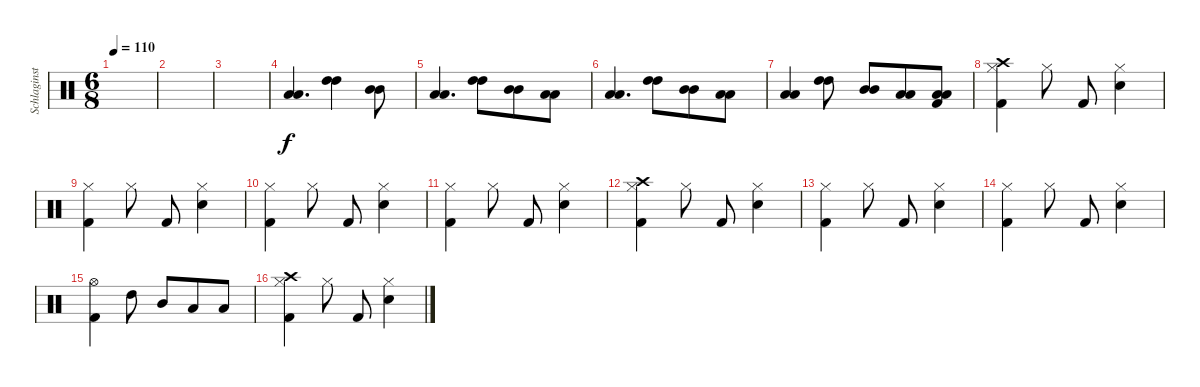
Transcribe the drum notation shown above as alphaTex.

\track ("Schlaginstrumente - Auswahl" "Schlaginst") {instrument percussion}
\staff {score}
\articulation defaults
\ts (6 8)
\tempo 110
\clef neutral
\ks c
|
|
|
("Low Tom (hit)" "Low Tom (hit)").4{d} ("High Tom (hit)" "High Tom (hit)").4 ("Mid Tom (hit)" "Mid Tom (hit)").8 |
("Low Tom (hit)" "Low Tom (hit)").4{d} ("High Tom (hit)" "High Tom (hit)").8 ("Mid Tom (hit)" "Mid Tom (hit)").8 ("Low Tom (hit)" "Low Tom (hit)").8 |
("Low Tom (hit)" "Low Tom (hit)").4{d} ("High Tom (hit)" "High Tom (hit)").8 ("Mid Tom (hit)" "Mid Tom (hit)").8 ("Low Tom (hit)" "Low Tom (hit)").8 |
("Low Tom (hit)" "Low Tom (hit)").4 ("High Tom (hit)" "High Tom (hit)").8 ("Mid Tom (hit)" "Mid Tom (hit)").8 ("Low Tom (hit)" "Low Tom (hit)").8 ("Low Tom (hit)" "Low Tom (hit)" "Kick (hit) 2").8 |
("Crash high (hit)" "Hi-Hat (closed)" "Kick (hit) 2").4 "Hi-Hat (closed)".8 "Kick (hit) 2".8 ("Hi-Hat (closed)" "Snare (hit) 2").4 |
("Hi-Hat (closed)" "Kick (hit) 2").4 "Hi-Hat (closed)".8 "Kick (hit) 2".8 ("Hi-Hat (closed)" "Snare (hit) 2").4 |
("Hi-Hat (closed)" "Kick (hit) 2").4 "Hi-Hat (closed)".8 "Kick (hit) 2".8 ("Hi-Hat (closed)" "Snare (hit) 2").4 |
("Hi-Hat (closed)" "Kick (hit) 2").4 "Hi-Hat (closed)".8 "Kick (hit) 2".8 ("Hi-Hat (closed)" "Snare (hit) 2").4 |
("Crash high (hit)" "Hi-Hat (closed)" "Kick (hit) 2").4 "Hi-Hat (closed)".8 "Kick (hit) 2".8 ("Hi-Hat (closed)" "Snare (hit) 2").4 |
("Hi-Hat (closed)" "Kick (hit) 2").4 "Hi-Hat (closed)".8 "Kick (hit) 2".8 ("Hi-Hat (closed)" "Snare (hit) 2").4 |
("Hi-Hat (closed)" "Kick (hit) 2").4 "Hi-Hat (closed)".8 "Kick (hit) 2".8 ("Hi-Hat (closed)" "Snare (hit) 2").4 |
("Hi-Hat (open)" "Kick (hit) 2").4 "High Tom (hit)".8 "Mid Tom (hit)".8 "Low Tom (hit)".8 "Low Tom (hit)".8 |
("Crash high (hit)" "Hi-Hat (closed)" "Kick (hit) 2").4 "Hi-Hat (closed)".8 "Kick (hit) 2".8 ("Hi-Hat (closed)" "Snare (hit) 2").4
